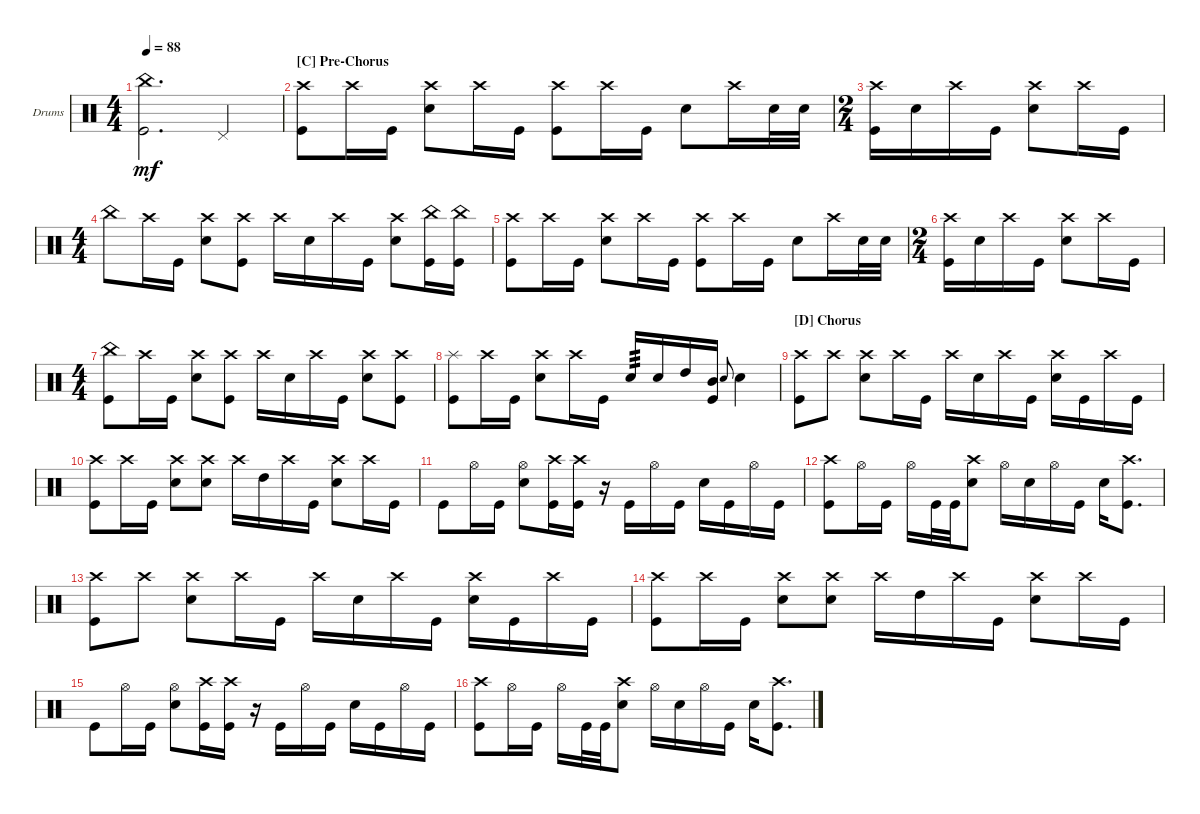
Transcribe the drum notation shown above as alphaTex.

\defaultSystemsLayout 4
\bracketExtendMode groupsimilarinstruments
\firstSystemTrackNameOrientation horizontal
\otherSystemsTrackNameOrientation horizontal
\track ("Drumkit" "Drums") {instrument percussion}
\staff {score}
\articulation defaults
\ts (4 4)
\tempo 88
\clef neutral
\scale
0.333333
\ks c
("China (hit)" "Kick (hit)").2{d dy mf} "Pedal Hi-Hat (hit)".4 |
\section ("C" "Pre-Chorus")
\scale
0.333333 ("Crash high (hit)" "Kick (hit)").8 "Crash high (hit)".16 "Kick (hit)".16 ("Snare (hit) 2" "Crash high (hit)").8 "Crash high (hit)".16 "Kick (hit)".16 ("Crash high (hit)" "Kick (hit)").8 "Crash high (hit)".16 "Kick (hit)".16 "Snare (hit) 2".8 "Crash high (hit)".16 "Snare (hit) 2".32 "Snare (hit) 2".32 |
\ts (2 4)
\scale
0.390805 ("Kick (hit)" "Crash high (hit)").16 "Snare (hit) 2".16 "Crash high (hit)".16 "Kick (hit)".16 ("Snare (hit) 2" "Crash high (hit)").8 "Crash high (hit)".16 "Kick (hit)".16 |
\ts (4 4)
\scale
0.390805 "China (hit)".8 "Crash high (hit)".16 "Kick (hit)".16 ("Snare (hit) 2" "Crash high (hit)").8 ("Crash high (hit)" "Kick (hit)").8 "Crash high (hit)".16 "Snare (hit) 2".16 "Crash high (hit)".16 "Kick (hit)".16 ("Crash high (hit)" "Snare (hit) 2").8 ("China (hit)" "Kick (hit)").16 ("China (hit)" "Kick (hit)").16 |
\scale
0.218391 ("Crash high (hit)" "Kick (hit)").8 "Crash high (hit)".16 "Kick (hit)".16 ("Snare (hit) 2" "Crash high (hit)").8 "Crash high (hit)".16 "Kick (hit)".16 ("Crash high (hit)" "Kick (hit)").8 "Crash high (hit)".16 "Kick (hit)".16 "Snare (hit) 2".8 "Crash high (hit)".16 "Snare (hit) 2".32 "Snare (hit) 2".32 |
\ts (2 4)
\scale
0.390805 ("Kick (hit)" "Crash high (hit)").16 "Snare (hit) 2".16 "Crash high (hit)".16 "Kick (hit)".16 ("Snare (hit) 2" "Crash high (hit)").8 "Crash high (hit)".16 "Kick (hit)".16 |
\ts (4 4)
\scale
0.390805 ("China (hit)" "Kick (hit)").8 "Crash high (hit)".16 "Kick (hit)".16 ("Snare (hit) 2" "Crash high (hit)").8 ("Crash high (hit)" "Kick (hit)").8 "Crash high (hit)".16 "Snare (hit) 2".16 "Crash high (hit)".16 "Kick (hit)".16 ("Snare (hit) 2" "Crash high (hit)").8 ("Crash high (hit)" "Kick (hit)").8 |
\scale
0.218391 ("Splash (hit)" "Kick (hit)").8 "Crash high (hit)".16 "Kick (hit)".16 ("Snare (hit) 2" "Crash high (hit)").8 "Crash high (hit)".16 "Kick (hit)".16 "Snare (hit) 2".16{tp 3} "Snare (hit) 2".16 "High Tom (hit)".16 ("Kick (hit)" "Mid Tom (hit)").16 "Snare (hit) 2".8{gr onbeat} "Snare (hit) 2".4 |
\section ("D" "Chorus")
\scale
0.333333 ("Kick (hit)" "Crash high (hit)").8 "Crash high (hit)".8 ("Crash high (hit)" "Snare (hit) 2").8 "Crash high (hit)".16 "Kick (hit)".16 "Crash high (hit)".16 "Snare (hit) 2".16 "Crash high (hit)".16 "Kick (hit)".16 ("Snare (hit) 2" "Crash high (hit)").16 "Kick (hit)".16 "Crash high (hit)".16 "Kick (hit)".16 |
\scale
0.333333 ("Crash high (hit)" "Kick (hit)").8 "Crash high (hit)".16 "Kick (hit)".16 ("Snare (hit) 2" "Crash high (hit)").8 ("Snare (hit) 2" "Crash high (hit)").8 "Crash high (hit)".16 "High Tom (hit)".16 "Crash high (hit)".16 "Kick (hit)".16 ("Snare (hit) 2" "Crash high (hit)").8 "Crash high (hit)".16 "Kick (hit)".16 |
\scale
0.333333 "Kick (hit)".8 "Hi-Hat (open)".16 "Kick (hit)".16 ("Snare (hit) 2" "Hi-Hat (open)").8 ("Kick (hit)" "Crash high (hit)").16 ("Kick (hit)" "Crash high (hit)").16 r.16 "Kick (hit)".16 "Hi-Hat (open)".16 "Kick (hit)".16 "Snare (hit) 2".16 "Kick (hit)".16 "Hi-Hat (open)".16 "Kick (hit)".16 |
\scale
0.333333 ("Kick (hit)" "Crash high (hit)").8 "Hi-Hat (open)".16 "Kick (hit)".16 "Hi-Hat (open)".16 "Kick (hit)".32 "Kick (hit)".32 ("Snare (hit) 2" "Crash high (hit)").8 "Hi-Hat (open)".16 "Snare (hit) 2".16 "Hi-Hat (open)".16 "Kick (hit)".16 "Snare (hit) 2".16 ("Kick (hit)" "Crash high (hit)").8{d} |
\scale
0.333333 ("Kick (hit)" "Crash high (hit)").8 "Crash high (hit)".8 ("Crash high (hit)" "Snare (hit) 2").8 "Crash high (hit)".16 "Kick (hit)".16 "Crash high (hit)".16 "Snare (hit) 2".16 "Crash high (hit)".16 "Kick (hit)".16 ("Snare (hit) 2" "Crash high (hit)").16 "Kick (hit)".16 "Crash high (hit)".16 "Kick (hit)".16 |
\scale
0.333333 ("Crash high (hit)" "Kick (hit)").8 "Crash high (hit)".16 "Kick (hit)".16 ("Snare (hit) 2" "Crash high (hit)").8 ("Snare (hit) 2" "Crash high (hit)").8 "Crash high (hit)".16 "High Tom (hit)".16 "Crash high (hit)".16 "Kick (hit)".16 ("Snare (hit) 2" "Crash high (hit)").8 "Crash high (hit)".16 "Kick (hit)".16 |
\scale
0.333333 "Kick (hit)".8 "Hi-Hat (open)".16 "Kick (hit)".16 ("Snare (hit) 2" "Hi-Hat (open)").8 ("Kick (hit)" "Crash high (hit)").16 ("Kick (hit)" "Crash high (hit)").16 r.16 "Kick (hit)".16 "Hi-Hat (open)".16 "Kick (hit)".16 "Snare (hit) 2".16 "Kick (hit)".16 "Hi-Hat (open)".16 "Kick (hit)".16 |
\scale
0.333333 ("Kick (hit)" "Crash high (hit)").8 "Hi-Hat (open)".16 "Kick (hit)".16 "Hi-Hat (open)".16 "Kick (hit)".32 "Kick (hit)".32 ("Snare (hit) 2" "Crash high (hit)").8 "Hi-Hat (open)".16 "Snare (hit) 2".16 "Hi-Hat (open)".16 "Kick (hit)".16 "Snare (hit) 2".16 ("Kick (hit)" "Crash high (hit)").8{d}
